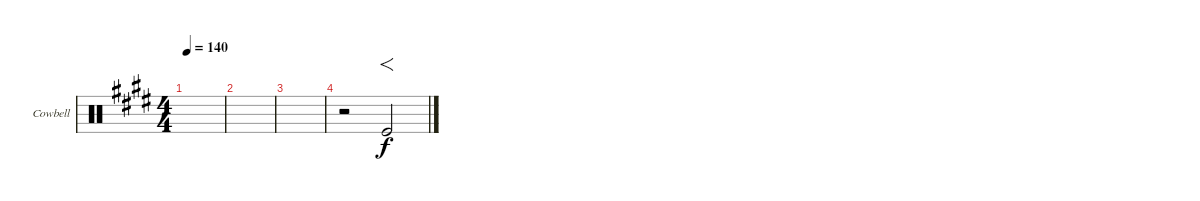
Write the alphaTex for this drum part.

\defaultSystemsLayout 4
\bracketExtendMode groupsimilarinstruments
\firstSystemTrackNameOrientation horizontal
\otherSystemsTrackNameOrientation horizontal
\track ("Cowbell" "Cowbell") {instrument percussion}
\staff {score}
\articulation defaults
\ts (4 4)
\tempo 140
\clef neutral
\scale
0.333333
\ks e
|
\scale
0.333333 |
\scale
0.333333 |
\scale
0.333333 r.2 "Kick (hit)".2{f} |
\scale
0.333333 |
\scale
0.333333 |
\scale
0.333333 |
\scale
0.333333 |
\scale
0.333333 |
\scale
0.333333 |
\scale
0.333333 |
\scale
0.333333 |
\scale
0.333333 |
\scale
0.333333 |
\scale
0.333333 |
\scale
0.333333
